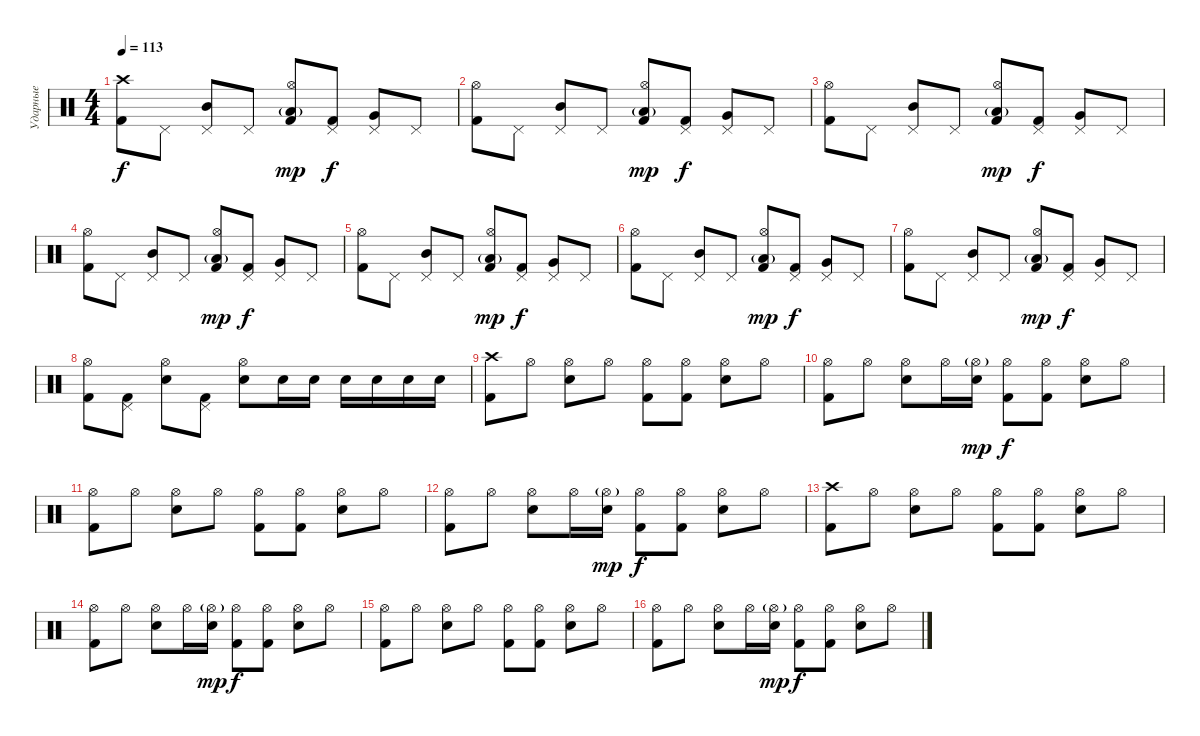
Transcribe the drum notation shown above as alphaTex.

\track ("Ударные" "Ударные") {instrument percussion}
\staff {score}
\articulation defaults
\ts (4 4)
\tempo 113
\clef neutral
\ks c
("Crash high (hit)" "Kick (hit) 2").8{dy f} "Pedal Hi-Hat (hit)".8 ("Pedal Hi-Hat (hit)" "Mid Tom (hit)").8 "Pedal Hi-Hat (hit)".8 ("Hi-Hat (open)" "Low Tom (hit)"{g} "Kick (hit) 2").8{dy mp} ("Pedal Hi-Hat (hit)" "Kick (hit) 2").8{dy f} ("Pedal Hi-Hat (hit)" "Very Low Tom (hit)").8 "Pedal Hi-Hat (hit)".8 |
("Hi-Hat (open)" "Kick (hit) 2").8 "Pedal Hi-Hat (hit)".8 ("Pedal Hi-Hat (hit)" "Mid Tom (hit)").8 "Pedal Hi-Hat (hit)".8 ("Hi-Hat (open)" "Low Tom (hit)"{g} "Kick (hit) 2").8{dy mp} ("Pedal Hi-Hat (hit)" "Kick (hit) 2").8{dy f} ("Pedal Hi-Hat (hit)" "Very Low Tom (hit)").8 "Pedal Hi-Hat (hit)".8 |
("Hi-Hat (open)" "Kick (hit) 2").8 "Pedal Hi-Hat (hit)".8 ("Pedal Hi-Hat (hit)" "Mid Tom (hit)").8 "Pedal Hi-Hat (hit)".8 ("Hi-Hat (open)" "Low Tom (hit)"{g} "Kick (hit) 2").8{dy mp} ("Pedal Hi-Hat (hit)" "Kick (hit) 2").8{dy f} ("Pedal Hi-Hat (hit)" "Very Low Tom (hit)").8 "Pedal Hi-Hat (hit)".8 |
("Hi-Hat (open)" "Kick (hit) 2").8 "Pedal Hi-Hat (hit)".8 ("Pedal Hi-Hat (hit)" "Mid Tom (hit)").8 "Pedal Hi-Hat (hit)".8 ("Hi-Hat (open)" "Low Tom (hit)"{g} "Kick (hit) 2").8{dy mp} ("Pedal Hi-Hat (hit)" "Kick (hit) 2").8{dy f} ("Pedal Hi-Hat (hit)" "Very Low Tom (hit)").8 "Pedal Hi-Hat (hit)".8 |
("Hi-Hat (open)" "Kick (hit) 2").8 "Pedal Hi-Hat (hit)".8 ("Pedal Hi-Hat (hit)" "Mid Tom (hit)").8 "Pedal Hi-Hat (hit)".8 ("Hi-Hat (open)" "Low Tom (hit)"{g} "Kick (hit) 2").8{dy mp} ("Pedal Hi-Hat (hit)" "Kick (hit) 2").8{dy f} ("Pedal Hi-Hat (hit)" "Very Low Tom (hit)").8 "Pedal Hi-Hat (hit)".8 |
("Hi-Hat (open)" "Kick (hit) 2").8 "Pedal Hi-Hat (hit)".8 ("Pedal Hi-Hat (hit)" "Mid Tom (hit)").8 "Pedal Hi-Hat (hit)".8 ("Hi-Hat (open)" "Low Tom (hit)"{g} "Kick (hit) 2").8{dy mp} ("Pedal Hi-Hat (hit)" "Kick (hit) 2").8{dy f} ("Pedal Hi-Hat (hit)" "Very Low Tom (hit)").8 "Pedal Hi-Hat (hit)".8 |
("Hi-Hat (open)" "Kick (hit) 2").8 "Pedal Hi-Hat (hit)".8 ("Pedal Hi-Hat (hit)" "Mid Tom (hit)").8 "Pedal Hi-Hat (hit)".8 ("Hi-Hat (open)" "Low Tom (hit)"{g} "Kick (hit) 2").8{dy mp} ("Pedal Hi-Hat (hit)" "Kick (hit) 2").8{dy f} ("Pedal Hi-Hat (hit)" "Very Low Tom (hit)").8 "Pedal Hi-Hat (hit)".8 |
("Hi-Hat (open)" "Kick (hit) 2").8 ("Pedal Hi-Hat (hit)" "Kick (hit) 2").8 ("Hi-Hat (open)" "Snare (hit) 2").8 ("Pedal Hi-Hat (hit)" "Kick (hit) 2").8 ("Hi-Hat (open)" "Snare (hit) 2").8 "Snare (hit) 2".16 "Snare (hit) 2".16 "Snare (hit) 2".16 "Snare (hit) 2".16 "Snare (hit) 2".16 "Snare (hit) 2".16 |
("Crash high (hit)" "Kick (hit) 2").8 "Hi-Hat (open)".8 ("Hi-Hat (open)" "Snare (hit) 2").8 "Hi-Hat (open)".8 ("Hi-Hat (open)" "Kick (hit) 2").8 ("Hi-Hat (open)" "Kick (hit) 2").8 ("Hi-Hat (open)" "Snare (hit) 2").8 "Hi-Hat (open)".8 |
("Hi-Hat (open)" "Kick (hit) 2").8 "Hi-Hat (open)".8 ("Hi-Hat (open)" "Snare (hit) 2").8 "Hi-Hat (open)".16 ("Hi-Hat (open)"{g} "Snare (hit) 2").16{dy mp} ("Hi-Hat (open)" "Kick (hit) 2").8{dy f} ("Hi-Hat (open)" "Kick (hit) 2").8 ("Hi-Hat (open)" "Snare (hit) 2").8 "Hi-Hat (open)".8 |
("Hi-Hat (open)" "Kick (hit) 2").8 "Hi-Hat (open)".8 ("Hi-Hat (open)" "Snare (hit) 2").8 "Hi-Hat (open)".8 ("Hi-Hat (open)" "Kick (hit) 2").8 ("Hi-Hat (open)" "Kick (hit) 2").8 ("Hi-Hat (open)" "Snare (hit) 2").8 "Hi-Hat (open)".8 |
("Hi-Hat (open)" "Kick (hit) 2").8 "Hi-Hat (open)".8 ("Hi-Hat (open)" "Snare (hit) 2").8 "Hi-Hat (open)".16 ("Hi-Hat (open)"{g} "Snare (hit) 2").16{dy mp} ("Hi-Hat (open)" "Kick (hit) 2").8{dy f} ("Hi-Hat (open)" "Kick (hit) 2").8 ("Hi-Hat (open)" "Snare (hit) 2").8 "Hi-Hat (open)".8 |
("Crash high (hit)" "Kick (hit) 2").8 "Hi-Hat (open)".8 ("Hi-Hat (open)" "Snare (hit) 2").8 "Hi-Hat (open)".8 ("Hi-Hat (open)" "Kick (hit) 2").8 ("Hi-Hat (open)" "Kick (hit) 2").8 ("Hi-Hat (open)" "Snare (hit) 2").8 "Hi-Hat (open)".8 |
("Hi-Hat (open)" "Kick (hit) 2").8 "Hi-Hat (open)".8 ("Hi-Hat (open)" "Snare (hit) 2").8 "Hi-Hat (open)".16 ("Hi-Hat (open)"{g} "Snare (hit) 2").16{dy mp} ("Hi-Hat (open)" "Kick (hit) 2").8{dy f} ("Hi-Hat (open)" "Kick (hit) 2").8 ("Hi-Hat (open)" "Snare (hit) 2").8 "Hi-Hat (open)".8 |
("Hi-Hat (open)" "Kick (hit) 2").8 "Hi-Hat (open)".8 ("Hi-Hat (open)" "Snare (hit) 2").8 "Hi-Hat (open)".8 ("Hi-Hat (open)" "Kick (hit) 2").8 ("Hi-Hat (open)" "Kick (hit) 2").8 ("Hi-Hat (open)" "Snare (hit) 2").8 "Hi-Hat (open)".8 |
("Hi-Hat (open)" "Kick (hit) 2").8 "Hi-Hat (open)".8 ("Hi-Hat (open)" "Snare (hit) 2").8 "Hi-Hat (open)".16 ("Hi-Hat (open)"{g} "Snare (hit) 2").16{dy mp} ("Hi-Hat (open)" "Kick (hit) 2").8{dy f} ("Hi-Hat (open)" "Kick (hit) 2").8 ("Hi-Hat (open)" "Snare (hit) 2").8 "Hi-Hat (open)".8
